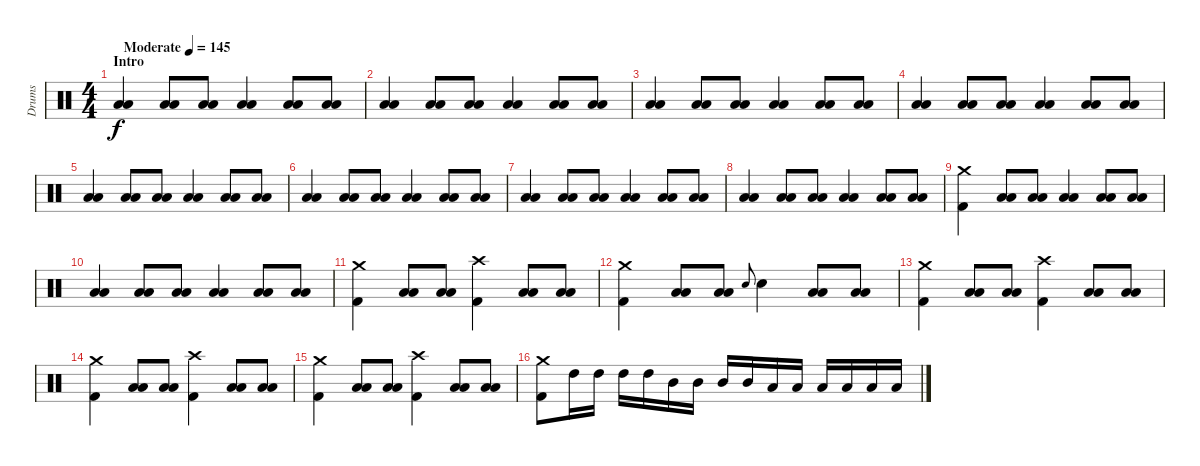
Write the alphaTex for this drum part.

\track ("Drums" "Drums") {instrument percussion}
\staff {score}
\articulation defaults
\ts (4 4)
\section ("" "Intro")
\tempo (145 "Moderate")
\clef neutral
\ks c
("Low Tom (hit)" "Low Floor Tom (hit)").4{dy f} ("Low Tom (hit)" "Low Floor Tom (hit)").8 ("Low Tom (hit)" "Low Floor Tom (hit)").8 ("Low Tom (hit)" "Low Floor Tom (hit)").4 ("Low Tom (hit)" "Low Floor Tom (hit)").8 ("Low Tom (hit)" "Low Floor Tom (hit)").8 |
("Low Tom (hit)" "Low Floor Tom (hit)").4 ("Low Tom (hit)" "Low Floor Tom (hit)").8 ("Low Tom (hit)" "Low Floor Tom (hit)").8 ("Low Tom (hit)" "Low Floor Tom (hit)").4 ("Low Tom (hit)" "Low Floor Tom (hit)").8 ("Low Tom (hit)" "Low Floor Tom (hit)").8 |
("Low Tom (hit)" "Low Floor Tom (hit)").4 ("Low Tom (hit)" "Low Floor Tom (hit)").8 ("Low Tom (hit)" "Low Floor Tom (hit)").8 ("Low Tom (hit)" "Low Floor Tom (hit)").4 ("Low Tom (hit)" "Low Floor Tom (hit)").8 ("Low Tom (hit)" "Low Floor Tom (hit)").8 |
("Low Tom (hit)" "Low Floor Tom (hit)").4 ("Low Tom (hit)" "Low Floor Tom (hit)").8 ("Low Tom (hit)" "Low Floor Tom (hit)").8 ("Low Tom (hit)" "Low Floor Tom (hit)").4 ("Low Tom (hit)" "Low Floor Tom (hit)").8 ("Low Tom (hit)" "Low Floor Tom (hit)").8 |
("Low Tom (hit)" "Low Floor Tom (hit)").4 ("Low Tom (hit)" "Low Floor Tom (hit)").8 ("Low Tom (hit)" "Low Floor Tom (hit)").8 ("Low Tom (hit)" "Low Floor Tom (hit)").4 ("Low Tom (hit)" "Low Floor Tom (hit)").8 ("Low Tom (hit)" "Low Floor Tom (hit)").8 |
("Low Tom (hit)" "Low Floor Tom (hit)").4 ("Low Tom (hit)" "Low Floor Tom (hit)").8 ("Low Tom (hit)" "Low Floor Tom (hit)").8 ("Low Tom (hit)" "Low Floor Tom (hit)").4 ("Low Tom (hit)" "Low Floor Tom (hit)").8 ("Low Tom (hit)" "Low Floor Tom (hit)").8 |
("Low Tom (hit)" "Low Floor Tom (hit)").4 ("Low Tom (hit)" "Low Floor Tom (hit)").8 ("Low Tom (hit)" "Low Floor Tom (hit)").8 ("Low Tom (hit)" "Low Floor Tom (hit)").4 ("Low Tom (hit)" "Low Floor Tom (hit)").8 ("Low Tom (hit)" "Low Floor Tom (hit)").8 |
("Low Tom (hit)" "Low Floor Tom (hit)").4 ("Low Tom (hit)" "Low Floor Tom (hit)").8 ("Low Tom (hit)" "Low Floor Tom (hit)").8 ("Low Tom (hit)" "Low Floor Tom (hit)").4 ("Low Tom (hit)" "Low Floor Tom (hit)").8 ("Low Tom (hit)" "Low Floor Tom (hit)").8 |
("Crash medium (hit)" "Kick (hit) 2").4 ("Low Tom (hit)" "Low Floor Tom (hit)").8 ("Low Tom (hit)" "Low Floor Tom (hit)").8 ("Low Tom (hit)" "Low Floor Tom (hit)").4 ("Low Tom (hit)" "Low Floor Tom (hit)").8 ("Low Tom (hit)" "Low Floor Tom (hit)").8 |
("Low Tom (hit)" "Low Floor Tom (hit)").4 ("Low Tom (hit)" "Low Floor Tom (hit)").8 ("Low Tom (hit)" "Low Floor Tom (hit)").8 ("Low Tom (hit)" "Low Floor Tom (hit)").4 ("Low Tom (hit)" "Low Floor Tom (hit)").8 ("Low Tom (hit)" "Low Floor Tom (hit)").8 |
("Crash medium (hit)" "Kick (hit) 2").4 ("Low Tom (hit)" "Low Floor Tom (hit)").8 ("Low Tom (hit)" "Low Floor Tom (hit)").8 ("Crash high (hit)" "Kick (hit) 2").4 ("Low Tom (hit)" "Low Floor Tom (hit)").8 ("Low Tom (hit)" "Low Floor Tom (hit)").8 |
("Crash medium (hit)" "Kick (hit) 2").4 ("Low Tom (hit)" "Low Floor Tom (hit)").8 ("Low Tom (hit)" "Low Floor Tom (hit)").8 "Electric Snare (hit)".8{gr onbeat} "Electric Snare (hit)".4 ("Low Tom (hit)" "Low Floor Tom (hit)").8 ("Low Tom (hit)" "Low Floor Tom (hit)").8 |
("Crash medium (hit)" "Kick (hit) 2").4 ("Low Tom (hit)" "Low Floor Tom (hit)").8 ("Low Tom (hit)" "Low Floor Tom (hit)").8 ("Crash high (hit)" "Kick (hit) 2").4 ("Low Tom (hit)" "Low Floor Tom (hit)").8 ("Low Tom (hit)" "Low Floor Tom (hit)").8 |
("Crash medium (hit)" "Kick (hit) 2").4 ("Low Tom (hit)" "Low Floor Tom (hit)").8 ("Low Tom (hit)" "Low Floor Tom (hit)").8 ("Crash high (hit)" "Kick (hit) 2").4 ("Low Tom (hit)" "Low Floor Tom (hit)").8 ("Low Tom (hit)" "Low Floor Tom (hit)").8 |
("Crash medium (hit)" "Kick (hit) 2").4 ("Low Tom (hit)" "Low Floor Tom (hit)").8 ("Low Tom (hit)" "Low Floor Tom (hit)").8 ("Crash high (hit)" "Kick (hit) 2").4 ("Low Tom (hit)" "Low Floor Tom (hit)").8 ("Low Tom (hit)" "Low Floor Tom (hit)").8 |
("Crash medium (hit)" "Kick (hit) 2").8 "High Tom (hit)".16 "High Tom (hit)".16 "High Tom (hit)".16 "High Tom (hit)".16 "Mid Tom (hit)".16 "Mid Tom (hit)".16 "Mid Tom (hit)".16 "Mid Tom (hit)".16 "Low Tom (hit)".16 "Low Tom (hit)".16 "Low Tom (hit)".16 "Low Tom (hit)".16 "Low Floor Tom (hit)".16 "Low Floor Tom (hit)".16
